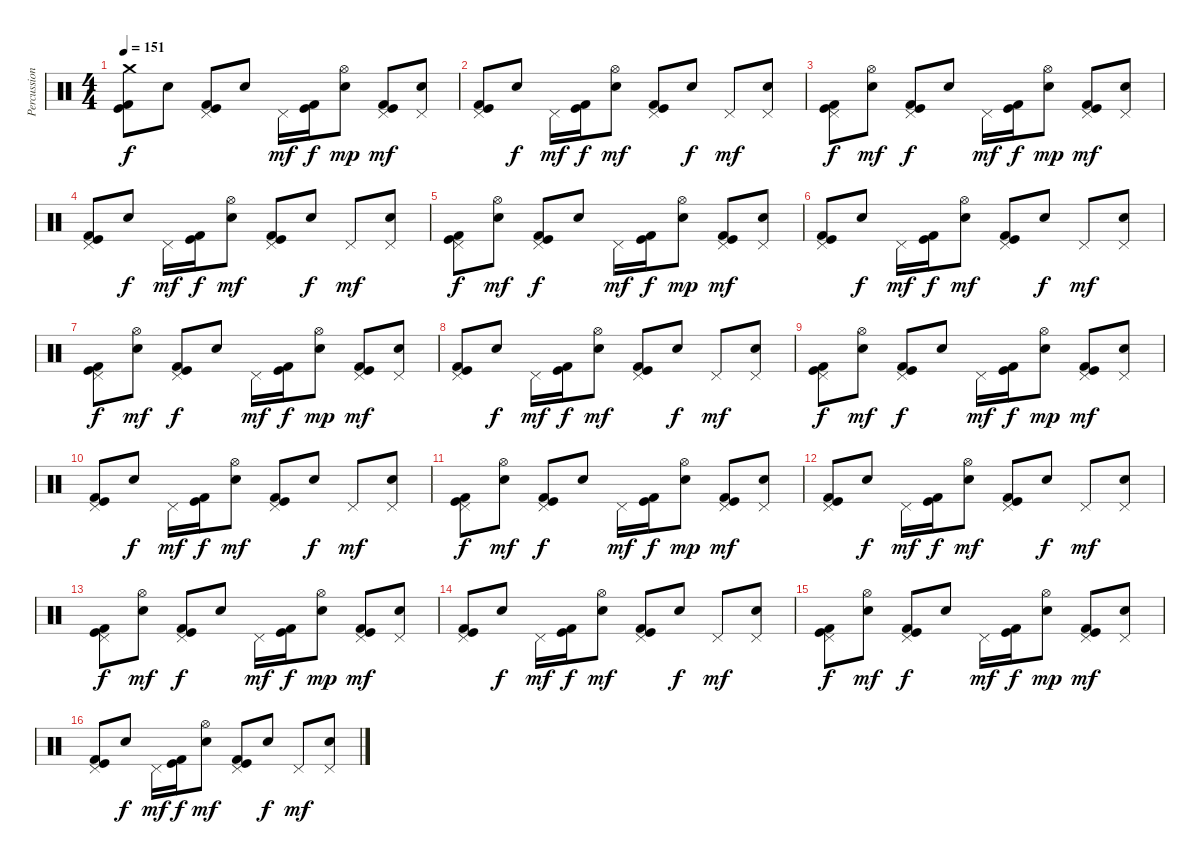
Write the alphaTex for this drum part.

\track ("Percussions" "Percussion") {instrument percussion}
\staff {score}
\articulation defaults
\ts (4 4)
\tempo 151
\clef neutral
\ks c
("Crash medium (hit)" "Kick (hit)" "Kick (hit) 2").8{dy f} "Electric Snare (hit)".8 ("Pedal Hi-Hat (hit)" "Kick (hit)" "Kick (hit) 2").8 "Electric Snare (hit)".8 "Pedal Hi-Hat (hit)".16{dy mf} ("Kick (hit)" "Kick (hit) 2").16{dy f} ("Hi-Hat (open)" "Electric Snare (hit)").8{dy mp} ("Pedal Hi-Hat (hit)" "Kick (hit)" "Kick (hit) 2").8{dy mf} ("Pedal Hi-Hat (hit)" "Electric Snare (hit)").8 |
("Pedal Hi-Hat (hit)" "Kick (hit)" "Kick (hit) 2").8 "Electric Snare (hit)".8{dy f} "Pedal Hi-Hat (hit)".16{dy mf} ("Kick (hit)" "Kick (hit) 2").16{dy f} ("Hi-Hat (open)" "Electric Snare (hit)").8{dy mf} ("Pedal Hi-Hat (hit)" "Kick (hit)" "Kick (hit) 2").8 "Electric Snare (hit)".8{dy f} "Pedal Hi-Hat (hit)".8{dy mf} ("Pedal Hi-Hat (hit)" "Electric Snare (hit)").8 |
("Pedal Hi-Hat (hit)" "Kick (hit)" "Kick (hit) 2").8{dy f} ("Hi-Hat (open)" "Electric Snare (hit)").8{dy mf} ("Pedal Hi-Hat (hit)" "Kick (hit)" "Kick (hit) 2").8{dy f} "Electric Snare (hit)".8 "Pedal Hi-Hat (hit)".16{dy mf} ("Kick (hit)" "Kick (hit) 2").16{dy f} ("Hi-Hat (open)" "Electric Snare (hit)").8{dy mp} ("Pedal Hi-Hat (hit)" "Kick (hit)" "Kick (hit) 2").8{dy mf} ("Pedal Hi-Hat (hit)" "Electric Snare (hit)").8 |
("Pedal Hi-Hat (hit)" "Kick (hit)" "Kick (hit) 2").8 "Electric Snare (hit)".8{dy f} "Pedal Hi-Hat (hit)".16{dy mf} ("Kick (hit)" "Kick (hit) 2").16{dy f} ("Hi-Hat (open)" "Electric Snare (hit)").8{dy mf} ("Pedal Hi-Hat (hit)" "Kick (hit)" "Kick (hit) 2").8 "Electric Snare (hit)".8{dy f} "Pedal Hi-Hat (hit)".8{dy mf} ("Pedal Hi-Hat (hit)" "Electric Snare (hit)").8 |
("Pedal Hi-Hat (hit)" "Kick (hit)" "Kick (hit) 2").8{dy f} ("Hi-Hat (open)" "Electric Snare (hit)").8{dy mf} ("Pedal Hi-Hat (hit)" "Kick (hit)" "Kick (hit) 2").8{dy f} "Electric Snare (hit)".8 "Pedal Hi-Hat (hit)".16{dy mf} ("Kick (hit)" "Kick (hit) 2").16{dy f} ("Hi-Hat (open)" "Electric Snare (hit)").8{dy mp} ("Pedal Hi-Hat (hit)" "Kick (hit)" "Kick (hit) 2").8{dy mf} ("Pedal Hi-Hat (hit)" "Electric Snare (hit)").8 |
("Pedal Hi-Hat (hit)" "Kick (hit)" "Kick (hit) 2").8 "Electric Snare (hit)".8{dy f} "Pedal Hi-Hat (hit)".16{dy mf} ("Kick (hit)" "Kick (hit) 2").16{dy f} ("Hi-Hat (open)" "Electric Snare (hit)").8{dy mf} ("Pedal Hi-Hat (hit)" "Kick (hit)" "Kick (hit) 2").8 "Electric Snare (hit)".8{dy f} "Pedal Hi-Hat (hit)".8{dy mf} ("Pedal Hi-Hat (hit)" "Electric Snare (hit)").8 |
("Pedal Hi-Hat (hit)" "Kick (hit)" "Kick (hit) 2").8{dy f} ("Hi-Hat (open)" "Electric Snare (hit)").8{dy mf} ("Pedal Hi-Hat (hit)" "Kick (hit)" "Kick (hit) 2").8{dy f} "Electric Snare (hit)".8 "Pedal Hi-Hat (hit)".16{dy mf} ("Kick (hit)" "Kick (hit) 2").16{dy f} ("Hi-Hat (open)" "Electric Snare (hit)").8{dy mp} ("Pedal Hi-Hat (hit)" "Kick (hit)" "Kick (hit) 2").8{dy mf} ("Pedal Hi-Hat (hit)" "Electric Snare (hit)").8 |
("Pedal Hi-Hat (hit)" "Kick (hit)" "Kick (hit) 2").8 "Electric Snare (hit)".8{dy f} "Pedal Hi-Hat (hit)".16{dy mf} ("Kick (hit)" "Kick (hit) 2").16{dy f} ("Hi-Hat (open)" "Electric Snare (hit)").8{dy mf} ("Pedal Hi-Hat (hit)" "Kick (hit)" "Kick (hit) 2").8 "Electric Snare (hit)".8{dy f} "Pedal Hi-Hat (hit)".8{dy mf} ("Pedal Hi-Hat (hit)" "Electric Snare (hit)").8 |
("Pedal Hi-Hat (hit)" "Kick (hit)" "Kick (hit) 2").8{dy f} ("Hi-Hat (open)" "Electric Snare (hit)").8{dy mf} ("Pedal Hi-Hat (hit)" "Kick (hit)" "Kick (hit) 2").8{dy f} "Electric Snare (hit)".8 "Pedal Hi-Hat (hit)".16{dy mf} ("Kick (hit)" "Kick (hit) 2").16{dy f} ("Hi-Hat (open)" "Electric Snare (hit)").8{dy mp} ("Pedal Hi-Hat (hit)" "Kick (hit)" "Kick (hit) 2").8{dy mf} ("Pedal Hi-Hat (hit)" "Electric Snare (hit)").8 |
("Pedal Hi-Hat (hit)" "Kick (hit)" "Kick (hit) 2").8 "Electric Snare (hit)".8{dy f} "Pedal Hi-Hat (hit)".16{dy mf} ("Kick (hit)" "Kick (hit) 2").16{dy f} ("Hi-Hat (open)" "Electric Snare (hit)").8{dy mf} ("Pedal Hi-Hat (hit)" "Kick (hit)" "Kick (hit) 2").8 "Electric Snare (hit)".8{dy f} "Pedal Hi-Hat (hit)".8{dy mf} ("Pedal Hi-Hat (hit)" "Electric Snare (hit)").8 |
("Pedal Hi-Hat (hit)" "Kick (hit)" "Kick (hit) 2").8{dy f} ("Hi-Hat (open)" "Electric Snare (hit)").8{dy mf} ("Pedal Hi-Hat (hit)" "Kick (hit)" "Kick (hit) 2").8{dy f} "Electric Snare (hit)".8 "Pedal Hi-Hat (hit)".16{dy mf} ("Kick (hit)" "Kick (hit) 2").16{dy f} ("Hi-Hat (open)" "Electric Snare (hit)").8{dy mp} ("Pedal Hi-Hat (hit)" "Kick (hit)" "Kick (hit) 2").8{dy mf} ("Pedal Hi-Hat (hit)" "Electric Snare (hit)").8 |
("Pedal Hi-Hat (hit)" "Kick (hit)" "Kick (hit) 2").8 "Electric Snare (hit)".8{dy f} "Pedal Hi-Hat (hit)".16{dy mf} ("Kick (hit)" "Kick (hit) 2").16{dy f} ("Hi-Hat (open)" "Electric Snare (hit)").8{dy mf} ("Pedal Hi-Hat (hit)" "Kick (hit)" "Kick (hit) 2").8 "Electric Snare (hit)".8{dy f} "Pedal Hi-Hat (hit)".8{dy mf} ("Pedal Hi-Hat (hit)" "Electric Snare (hit)").8 |
("Pedal Hi-Hat (hit)" "Kick (hit)" "Kick (hit) 2").8{dy f} ("Hi-Hat (open)" "Electric Snare (hit)").8{dy mf} ("Pedal Hi-Hat (hit)" "Kick (hit)" "Kick (hit) 2").8{dy f} "Electric Snare (hit)".8 "Pedal Hi-Hat (hit)".16{dy mf} ("Kick (hit)" "Kick (hit) 2").16{dy f} ("Hi-Hat (open)" "Electric Snare (hit)").8{dy mp} ("Pedal Hi-Hat (hit)" "Kick (hit)" "Kick (hit) 2").8{dy mf} ("Pedal Hi-Hat (hit)" "Electric Snare (hit)").8 |
("Pedal Hi-Hat (hit)" "Kick (hit)" "Kick (hit) 2").8 "Electric Snare (hit)".8{dy f} "Pedal Hi-Hat (hit)".16{dy mf} ("Kick (hit)" "Kick (hit) 2").16{dy f} ("Hi-Hat (open)" "Electric Snare (hit)").8{dy mf} ("Pedal Hi-Hat (hit)" "Kick (hit)" "Kick (hit) 2").8 "Electric Snare (hit)".8{dy f} "Pedal Hi-Hat (hit)".8{dy mf} ("Pedal Hi-Hat (hit)" "Electric Snare (hit)").8 |
("Pedal Hi-Hat (hit)" "Kick (hit)" "Kick (hit) 2").8{dy f} ("Hi-Hat (open)" "Electric Snare (hit)").8{dy mf} ("Pedal Hi-Hat (hit)" "Kick (hit)" "Kick (hit) 2").8{dy f} "Electric Snare (hit)".8 "Pedal Hi-Hat (hit)".16{dy mf} ("Kick (hit)" "Kick (hit) 2").16{dy f} ("Hi-Hat (open)" "Electric Snare (hit)").8{dy mp} ("Pedal Hi-Hat (hit)" "Kick (hit)" "Kick (hit) 2").8{dy mf} ("Pedal Hi-Hat (hit)" "Electric Snare (hit)").8 |
("Pedal Hi-Hat (hit)" "Kick (hit)" "Kick (hit) 2").8 "Electric Snare (hit)".8{dy f} "Pedal Hi-Hat (hit)".16{dy mf} ("Kick (hit)" "Kick (hit) 2").16{dy f} ("Hi-Hat (open)" "Electric Snare (hit)").8{dy mf} ("Pedal Hi-Hat (hit)" "Kick (hit)" "Kick (hit) 2").8 "Electric Snare (hit)".8{dy f} "Pedal Hi-Hat (hit)".8{dy mf} ("Pedal Hi-Hat (hit)" "Electric Snare (hit)").8
